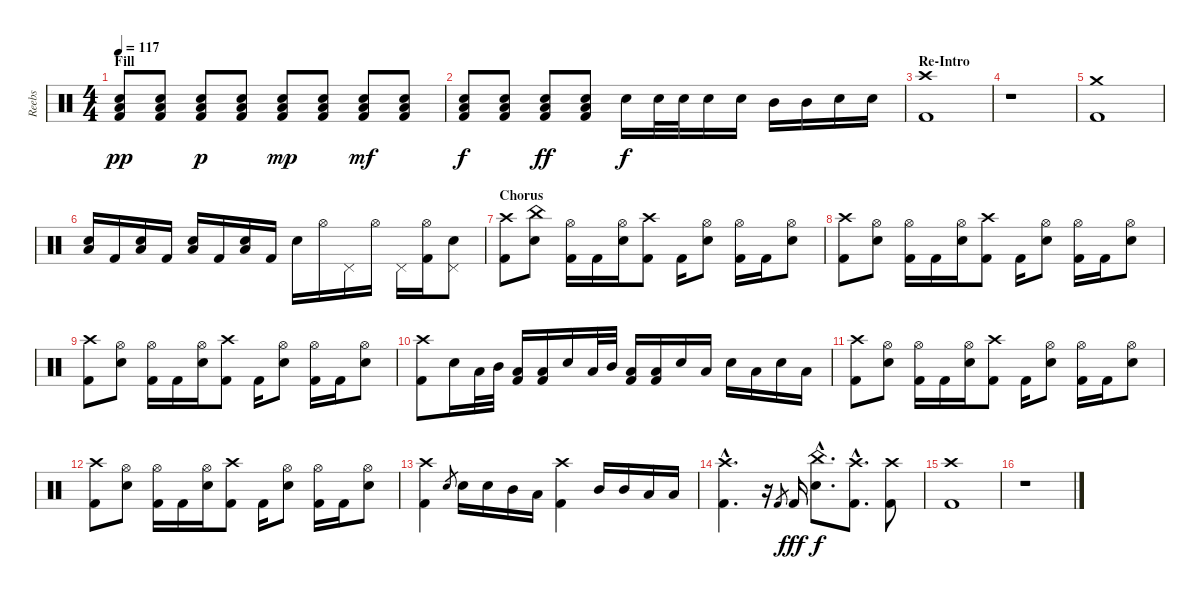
\track ("Reebs" "Reebs") {instrument percussion}
\staff {score}
\articulation defaults
\ts (4 4)
\section ("" "Fill")
\tempo 117
\clef neutral
\ks c
("Electric Snare (hit)" "Low Tom (hit)" "Kick (hit) 2").8{dy pp} ("Electric Snare (hit)" "Low Tom (hit)" "Kick (hit) 2").8 ("Electric Snare (hit)" "Low Tom (hit)" "Kick (hit) 2").8{dy p} ("Electric Snare (hit)" "Low Tom (hit)" "Kick (hit) 2").8 ("Electric Snare (hit)" "Low Tom (hit)" "Kick (hit) 2").8{dy mp} ("Electric Snare (hit)" "Low Tom (hit)" "Kick (hit) 2").8 ("Electric Snare (hit)" "Low Tom (hit)" "Kick (hit) 2").8{dy mf} ("Electric Snare (hit)" "Low Tom (hit)" "Kick (hit) 2").8 |
("Electric Snare (hit)" "Low Tom (hit)" "Kick (hit) 2").8{dy f} ("Electric Snare (hit)" "Low Tom (hit)" "Kick (hit) 2").8 ("Electric Snare (hit)" "Low Tom (hit)" "Kick (hit) 2").8{dy ff} ("Electric Snare (hit)" "Low Tom (hit)" "Kick (hit) 2").8 "Electric Snare (hit)".16{dy f} "Electric Snare (hit)".32 "Electric Snare (hit)".32 "Electric Snare (hit)".16 "Electric Snare (hit)".16 "Mid Tom (hit)".16 "Mid Tom (hit)".16 "Electric Snare (hit)".16 "Electric Snare (hit)".16 |
\section ("" "Re-Intro")
("Crash high (hit)" "Kick (hit) 2").1 |
r.1 |
("Crash medium (hit)" "Kick (hit) 2").1 |
("Low Tom (hit)" "Electric Snare (hit)").16 "Kick (hit) 2".16 ("Low Tom (hit)" "Electric Snare (hit)").16 "Kick (hit) 2".16 ("Low Tom (hit)" "Electric Snare (hit)").16 "Kick (hit) 2".16 ("Low Tom (hit)" "Electric Snare (hit)").16 "Kick (hit) 2".16 "Electric Snare (hit)".16 "Hi-Hat (open)".16 "Pedal Hi-Hat (hit)".16 "Hi-Hat (open)".16 "Pedal Hi-Hat (hit)".16 ("Hi-Hat (open)" "Kick (hit) 2").16 ("Pedal Hi-Hat (hit)" "Electric Snare (hit)").8 |
\section ("" "Chorus")
("Crash high (hit)" "Kick (hit) 2").8 ("China (hit)" "Electric Snare (hit)").8 ("Hi-Hat (open)" "Kick (hit) 2").16 "Kick (hit) 2".16 ("Hi-Hat (open)" "Electric Snare (hit)").16 ("Crash high (hit)" "Kick (hit) 2").8 "Kick (hit) 2".16 ("Hi-Hat (open)" "Electric Snare (hit)").8 ("Hi-Hat (open)" "Kick (hit) 2").16 "Kick (hit) 2".16 ("Hi-Hat (open)" "Electric Snare (hit)").8 |
("Crash high (hit)" "Kick (hit) 2").8 ("Hi-Hat (open)" "Electric Snare (hit)").8 ("Hi-Hat (open)" "Kick (hit) 2").16 "Kick (hit) 2".16 ("Hi-Hat (open)" "Electric Snare (hit)").16 ("Crash high (hit)" "Kick (hit) 2").8 "Kick (hit) 2".16 ("Hi-Hat (open)" "Electric Snare (hit)").8 ("Hi-Hat (open)" "Kick (hit) 2").16 "Kick (hit) 2".16 ("Hi-Hat (open)" "Electric Snare (hit)").8 |
("Crash high (hit)" "Kick (hit) 2").8 ("Hi-Hat (open)" "Electric Snare (hit)").8 ("Hi-Hat (open)" "Kick (hit) 2").16 "Kick (hit) 2".16 ("Hi-Hat (open)" "Electric Snare (hit)").16 ("Crash high (hit)" "Kick (hit) 2").8 "Kick (hit) 2".16 ("Hi-Hat (open)" "Electric Snare (hit)").8 ("Hi-Hat (open)" "Kick (hit) 2").16 "Kick (hit) 2".16 ("Hi-Hat (open)" "Electric Snare (hit)").8 |
("Crash high (hit)" "Kick (hit) 2").8 "Electric Snare (hit)".16 "Low Tom (hit)".32 "Mid Tom (hit)".32 ("Low Tom (hit)" "Kick (hit) 2").16 ("Low Tom (hit)" "Kick (hit) 2").16 "Electric Snare (hit)".16 "Low Tom (hit)".32 "Mid Tom (hit)".32 ("Low Tom (hit)" "Kick (hit) 2").16 ("Low Tom (hit)" "Kick (hit) 2").16 "Electric Snare (hit)".16 "Low Tom (hit)".16 "Electric Snare (hit)".16 "Low Tom (hit)".16 "Electric Snare (hit)".16 "Low Tom (hit)".16 |
("Crash high (hit)" "Kick (hit) 2").8 ("Hi-Hat (open)" "Electric Snare (hit)").8 ("Hi-Hat (open)" "Kick (hit) 2").16 "Kick (hit) 2".16 ("Hi-Hat (open)" "Electric Snare (hit)").16 ("Crash high (hit)" "Kick (hit) 2").8 "Kick (hit) 2".16 ("Hi-Hat (open)" "Electric Snare (hit)").8 ("Hi-Hat (open)" "Kick (hit) 2").16 "Kick (hit) 2".16 ("Hi-Hat (open)" "Electric Snare (hit)").8 |
("Crash high (hit)" "Kick (hit) 2").8 ("Hi-Hat (open)" "Electric Snare (hit)").8 ("Hi-Hat (open)" "Kick (hit) 2").16 "Kick (hit) 2".16 ("Hi-Hat (open)" "Electric Snare (hit)").16 ("Crash high (hit)" "Kick (hit) 2").8 "Kick (hit) 2".16 ("Hi-Hat (open)" "Electric Snare (hit)").8 ("Hi-Hat (open)" "Kick (hit) 2").16 "Kick (hit) 2".16 ("Hi-Hat (open)" "Electric Snare (hit)").8 |
("Crash high (hit)" "Kick (hit) 2").4 "Electric Snare (hit)".8{gr} "Electric Snare (hit)".16 "Electric Snare (hit)".16 "Mid Tom (hit)".16 "Low Tom (hit)".16 ("Crash high (hit)" "Kick (hit) 2").4 "Mid Tom (hit)".16 "Mid Tom (hit)".16 "Low Tom (hit)".16 "Low Tom (hit)".16 |
("Crash high (hit)"{hac} "Kick (hit) 2"{hac}).4{d} r.16 "Kick (hit) 2".8{gr} "Kick (hit) 2".16{dy fff} ("China (hit)"{hac} "Electric Snare (hit)"{hac}).8{d dy f} ("Crash high (hit)"{hac} "Kick (hit) 2"{hac}).8{d} ("Crash high (hit)" "Kick (hit) 2").8 |
("Crash high (hit)" "Kick (hit) 2").1 |
r.1
